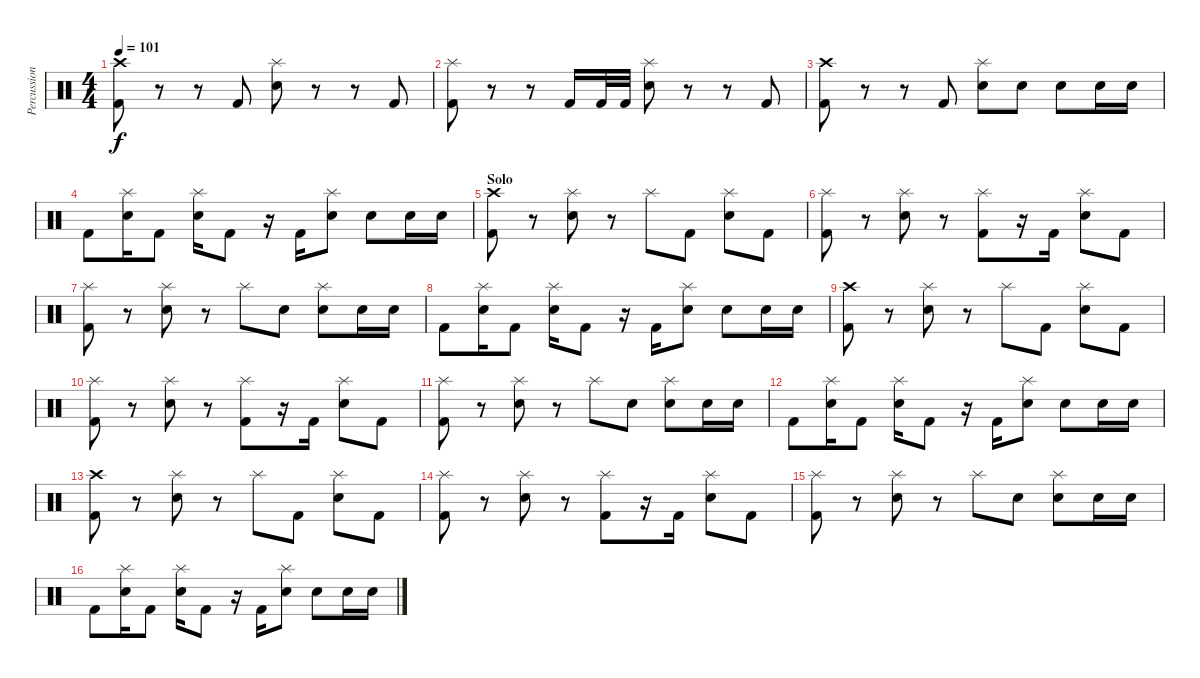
\track ("Percussion" "Percussion") {instrument percussion}
\staff {score}
\articulation defaults
\ts (4 4)
\tempo 101
\clef neutral
\ks c
("Crash high (hit)" "Kick (hit) 2").8{dy f} r.8 r.8 "Kick (hit) 2".8 ("Splash (hit)" "Electric Snare (hit)").8 r.8 r.8 "Kick (hit) 2".8 |
("Splash (hit)" "Kick (hit) 2").8 r.8 r.8 "Kick (hit) 2".16 "Kick (hit) 2".32 "Kick (hit) 2".32 ("Splash (hit)" "Electric Snare (hit)").8 r.8 r.8 "Kick (hit) 2".8 |
("Crash high (hit)" "Kick (hit) 2").8 r.8 r.8 "Kick (hit) 2".8 ("Splash (hit)" "Electric Snare (hit)").8 "Electric Snare (hit)".8 "Electric Snare (hit)".8 "Electric Snare (hit)".16 "Electric Snare (hit)".16 |
"Kick (hit) 2".8 ("Splash (hit)" "Electric Snare (hit)").16 "Kick (hit) 2".8 ("Splash (hit)" "Electric Snare (hit)").16 "Kick (hit) 2".8 r.16 "Kick (hit) 2".16 ("Splash (hit)" "Electric Snare (hit)").8 "Electric Snare (hit)".8 "Electric Snare (hit)".16 "Electric Snare (hit)".16 |
\section ("" "Solo")
("Crash high (hit)" "Kick (hit) 2").8 r.8 ("Splash (hit)" "Electric Snare (hit)").8 r.8 "Splash (hit)".8 "Kick (hit) 2".8 ("Splash (hit)" "Electric Snare (hit)").8 "Kick (hit) 2".8 |
("Splash (hit)" "Kick (hit) 2").8 r.8 ("Splash (hit)" "Electric Snare (hit)").8 r.8 ("Splash (hit)" "Kick (hit) 2").8 r.16 "Kick (hit) 2".16 ("Splash (hit)" "Electric Snare (hit)").8 "Kick (hit) 2".8 |
("Splash (hit)" "Kick (hit) 2").8 r.8 ("Splash (hit)" "Electric Snare (hit)").8 r.8 "Splash (hit)".8 "Electric Snare (hit)".8 ("Splash (hit)" "Electric Snare (hit)").8 "Electric Snare (hit)".16 "Electric Snare (hit)".16 |
"Kick (hit) 2".8 ("Splash (hit)" "Electric Snare (hit)").16 "Kick (hit) 2".8 ("Splash (hit)" "Electric Snare (hit)").16 "Kick (hit) 2".8 r.16 "Kick (hit) 2".16 ("Splash (hit)" "Electric Snare (hit)").8 "Electric Snare (hit)".8 "Electric Snare (hit)".16 "Electric Snare (hit)".16 |
("Crash high (hit)" "Kick (hit) 2").8 r.8 ("Splash (hit)" "Electric Snare (hit)").8 r.8 "Splash (hit)".8 "Kick (hit) 2".8 ("Splash (hit)" "Electric Snare (hit)").8 "Kick (hit) 2".8 |
("Splash (hit)" "Kick (hit) 2").8 r.8 ("Splash (hit)" "Electric Snare (hit)").8 r.8 ("Splash (hit)" "Kick (hit) 2").8 r.16 "Kick (hit) 2".16 ("Splash (hit)" "Electric Snare (hit)").8 "Kick (hit) 2".8 |
("Splash (hit)" "Kick (hit) 2").8 r.8 ("Splash (hit)" "Electric Snare (hit)").8 r.8 "Splash (hit)".8 "Electric Snare (hit)".8 ("Splash (hit)" "Electric Snare (hit)").8 "Electric Snare (hit)".16 "Electric Snare (hit)".16 |
"Kick (hit) 2".8 ("Splash (hit)" "Electric Snare (hit)").16 "Kick (hit) 2".8 ("Splash (hit)" "Electric Snare (hit)").16 "Kick (hit) 2".8 r.16 "Kick (hit) 2".16 ("Splash (hit)" "Electric Snare (hit)").8 "Electric Snare (hit)".8 "Electric Snare (hit)".16 "Electric Snare (hit)".16 |
("Crash high (hit)" "Kick (hit) 2").8 r.8 ("Splash (hit)" "Electric Snare (hit)").8 r.8 "Splash (hit)".8 "Kick (hit) 2".8 ("Splash (hit)" "Electric Snare (hit)").8 "Kick (hit) 2".8 |
("Splash (hit)" "Kick (hit) 2").8 r.8 ("Splash (hit)" "Electric Snare (hit)").8 r.8 ("Splash (hit)" "Kick (hit) 2").8 r.16 "Kick (hit) 2".16 ("Splash (hit)" "Electric Snare (hit)").8 "Kick (hit) 2".8 |
("Splash (hit)" "Kick (hit) 2").8 r.8 ("Splash (hit)" "Electric Snare (hit)").8 r.8 "Splash (hit)".8 "Electric Snare (hit)".8 ("Splash (hit)" "Electric Snare (hit)").8 "Electric Snare (hit)".16 "Electric Snare (hit)".16 |
"Kick (hit) 2".8 ("Splash (hit)" "Electric Snare (hit)").16 "Kick (hit) 2".8 ("Splash (hit)" "Electric Snare (hit)").16 "Kick (hit) 2".8 r.16 "Kick (hit) 2".16 ("Splash (hit)" "Electric Snare (hit)").8 "Electric Snare (hit)".8 "Electric Snare (hit)".16 "Electric Snare (hit)".16
